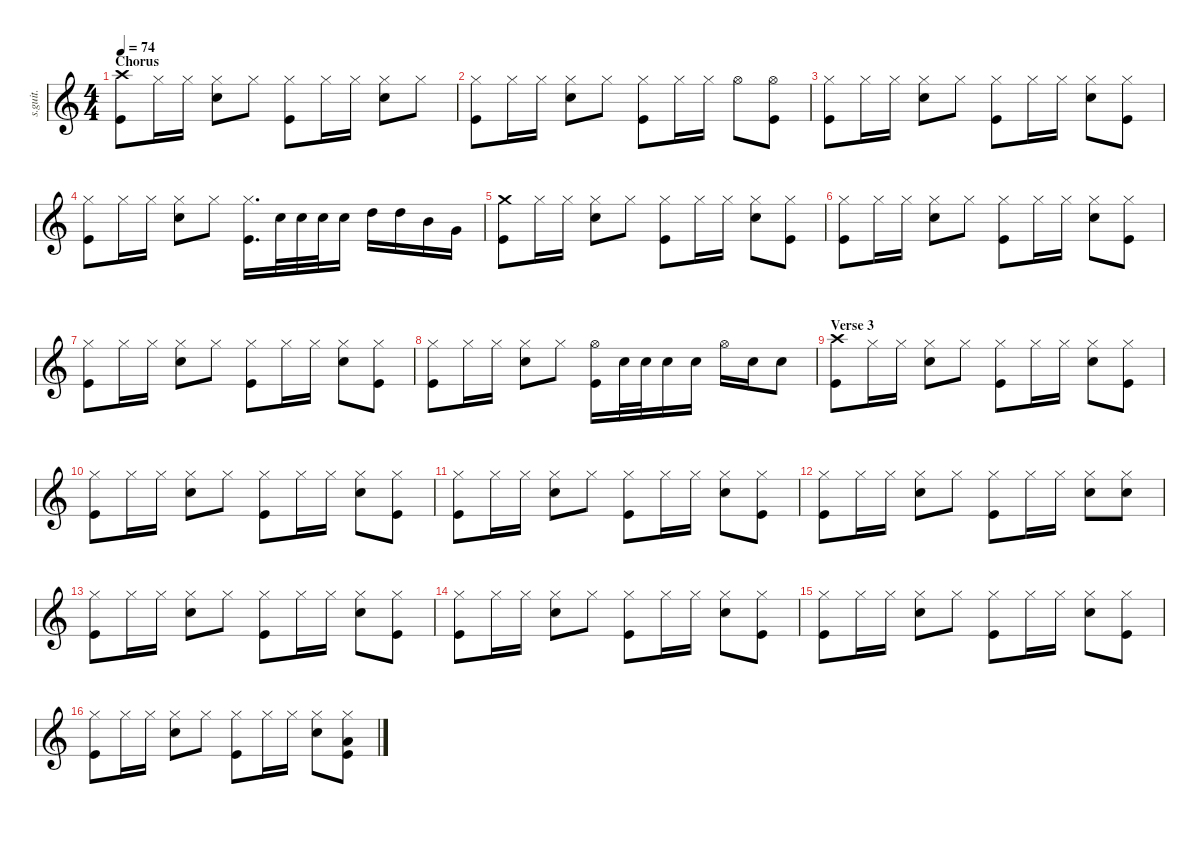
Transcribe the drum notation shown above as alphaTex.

\defaultSystemsLayout 4
\hideDynamics
\bracketExtendMode nobrackets
\track ("Don Henley - Drums" "s.guit.") {instrument percussion}
\staff {score}
\articulation defaults
\ts (4 4)
\section ("" "Chorus")
\tempo 74
\clef g2
\ks c
("Crash high (hit)" "Kick (hit)").8{lyrics (0 "") lyrics (1 "") lyrics (2 "") lyrics (3 "") lyrics (4 "") dy f} "Hi-Hat (closed)".16{lyrics (0 "") lyrics (1 "") lyrics (2 "") lyrics (3 "") lyrics (4 "")} "Hi-Hat (closed)".16{lyrics (0 "") lyrics (1 "") lyrics (2 "") lyrics (3 "") lyrics (4 "")} ("Hi-Hat (closed)" "Snare (hit) 2").8{lyrics (0 "") lyrics (1 "") lyrics (2 "") lyrics (3 "") lyrics (4 "")} "Hi-Hat (closed)".8{lyrics (0 "") lyrics (1 "") lyrics (2 "") lyrics (3 "") lyrics (4 "")} ("Hi-Hat (closed)" "Kick (hit)").8{lyrics (0 "") lyrics (1 "") lyrics (2 "") lyrics (3 "") lyrics (4 "")} "Hi-Hat (closed)".16{lyrics (0 "") lyrics (1 "") lyrics (2 "") lyrics (3 "") lyrics (4 "")} "Hi-Hat (closed)".16{lyrics (0 "") lyrics (1 "") lyrics (2 "") lyrics (3 "") lyrics (4 "")} ("Hi-Hat (closed)" "Snare (hit) 2").8{lyrics (0 "") lyrics (1 "") lyrics (2 "") lyrics (3 "") lyrics (4 "")} "Hi-Hat (closed)".8{lyrics (0 "") lyrics (1 "") lyrics (2 "") lyrics (3 "") lyrics (4 "")} |
("Hi-Hat (closed)" "Kick (hit)").8{lyrics (0 "") lyrics (1 "") lyrics (2 "") lyrics (3 "") lyrics (4 "")} "Hi-Hat (closed)".16{lyrics (0 "") lyrics (1 "") lyrics (2 "") lyrics (3 "") lyrics (4 "")} "Hi-Hat (closed)".16{lyrics (0 "") lyrics (1 "") lyrics (2 "") lyrics (3 "") lyrics (4 "")} ("Hi-Hat (closed)" "Snare (hit) 2").8{lyrics (0 "") lyrics (1 "") lyrics (2 "") lyrics (3 "") lyrics (4 "")} "Hi-Hat (closed)".8{lyrics (0 "") lyrics (1 "") lyrics (2 "") lyrics (3 "") lyrics (4 "")} ("Hi-Hat (closed)" "Kick (hit)").8{lyrics (0 "") lyrics (1 "") lyrics (2 "") lyrics (3 "") lyrics (4 "")} "Hi-Hat (closed)".16{lyrics (0 "") lyrics (1 "") lyrics (2 "") lyrics (3 "") lyrics (4 "")} "Hi-Hat (closed)".16{lyrics (0 "") lyrics (1 "") lyrics (2 "") lyrics (3 "") lyrics (4 "")} "Hi-Hat (open)".8{lyrics (0 "") lyrics (1 "") lyrics (2 "") lyrics (3 "") lyrics (4 "")} ("Hi-Hat (open)" "Kick (hit)").8{lyrics (0 "") lyrics (1 "") lyrics (2 "") lyrics (3 "") lyrics (4 "")} |
("Hi-Hat (closed)" "Kick (hit)").8{lyrics (0 "") lyrics (1 "") lyrics (2 "") lyrics (3 "") lyrics (4 "")} "Hi-Hat (closed)".16{lyrics (0 "") lyrics (1 "") lyrics (2 "") lyrics (3 "") lyrics (4 "")} "Hi-Hat (closed)".16{lyrics (0 "") lyrics (1 "") lyrics (2 "") lyrics (3 "") lyrics (4 "")} ("Hi-Hat (closed)" "Snare (hit) 2").8{lyrics (0 "") lyrics (1 "") lyrics (2 "") lyrics (3 "") lyrics (4 "")} "Hi-Hat (closed)".8{lyrics (0 "") lyrics (1 "") lyrics (2 "") lyrics (3 "") lyrics (4 "")} ("Hi-Hat (closed)" "Kick (hit)").8{lyrics (0 "") lyrics (1 "") lyrics (2 "") lyrics (3 "") lyrics (4 "")} "Hi-Hat (closed)".16{lyrics (0 "") lyrics (1 "") lyrics (2 "") lyrics (3 "") lyrics (4 "")} "Hi-Hat (closed)".16{lyrics (0 "") lyrics (1 "") lyrics (2 "") lyrics (3 "") lyrics (4 "")} ("Hi-Hat (closed)" "Snare (hit) 2").8{lyrics (0 "") lyrics (1 "") lyrics (2 "") lyrics (3 "") lyrics (4 "")} ("Hi-Hat (closed)" "Kick (hit)").8{lyrics (0 "") lyrics (1 "") lyrics (2 "") lyrics (3 "") lyrics (4 "")} |
("Hi-Hat (closed)" "Kick (hit)").8{lyrics (0 "") lyrics (1 "") lyrics (2 "") lyrics (3 "") lyrics (4 "")} "Hi-Hat (closed)".16{lyrics (0 "") lyrics (1 "") lyrics (2 "") lyrics (3 "") lyrics (4 "")} "Hi-Hat (closed)".16{lyrics (0 "") lyrics (1 "") lyrics (2 "") lyrics (3 "") lyrics (4 "")} ("Hi-Hat (closed)" "Snare (hit) 2").8{lyrics (0 "") lyrics (1 "") lyrics (2 "") lyrics (3 "") lyrics (4 "")} "Hi-Hat (closed)".8{lyrics (0 "") lyrics (1 "") lyrics (2 "") lyrics (3 "") lyrics (4 "")} ("Hi-Hat (closed)" "Kick (hit)").16{d lyrics (0 "") lyrics (1 "") lyrics (2 "") lyrics (3 "") lyrics (4 "")} "Snare (hit) 2".32{lyrics (0 "") lyrics (1 "") lyrics (2 "") lyrics (3 "") lyrics (4 "")} "Snare (hit) 2".32{lyrics (0 "") lyrics (1 "") lyrics (2 "") lyrics (3 "") lyrics (4 "")} "Snare (hit) 2".32{lyrics (0 "") lyrics (1 "") lyrics (2 "") lyrics (3 "") lyrics (4 "")} "Snare (hit) 2".16{lyrics (0 "") lyrics (1 "") lyrics (2 "") lyrics (3 "") lyrics (4 "")} "High Tom (hit)".16{lyrics (0 "") lyrics (1 "") lyrics (2 "") lyrics (3 "") lyrics (4 "")} "High Tom (hit)".16{lyrics (0 "") lyrics (1 "") lyrics (2 "") lyrics (3 "") lyrics (4 "")} "Mid Tom (hit)".16{lyrics (0 "") lyrics (1 "") lyrics (2 "") lyrics (3 "") lyrics (4 "")} "Very Low Tom (hit)".16{lyrics (0 "") lyrics (1 "") lyrics (2 "") lyrics (3 "") lyrics (4 "")} |
("Crash medium (hit)" "Kick (hit)").8{lyrics (0 "") lyrics (1 "") lyrics (2 "") lyrics (3 "") lyrics (4 "")} "Hi-Hat (closed)".16{lyrics (0 "") lyrics (1 "") lyrics (2 "") lyrics (3 "") lyrics (4 "")} "Hi-Hat (closed)".16{lyrics (0 "") lyrics (1 "") lyrics (2 "") lyrics (3 "") lyrics (4 "")} ("Hi-Hat (closed)" "Snare (hit) 2").8{lyrics (0 "") lyrics (1 "") lyrics (2 "") lyrics (3 "") lyrics (4 "")} "Hi-Hat (closed)".8{lyrics (0 "") lyrics (1 "") lyrics (2 "") lyrics (3 "") lyrics (4 "")} ("Hi-Hat (closed)" "Kick (hit)").8{lyrics (0 "") lyrics (1 "") lyrics (2 "") lyrics (3 "") lyrics (4 "")} "Hi-Hat (closed)".16{lyrics (0 "") lyrics (1 "") lyrics (2 "") lyrics (3 "") lyrics (4 "")} "Hi-Hat (closed)".16{lyrics (0 "") lyrics (1 "") lyrics (2 "") lyrics (3 "") lyrics (4 "")} ("Hi-Hat (closed)" "Snare (hit) 2").8{lyrics (0 "") lyrics (1 "") lyrics (2 "") lyrics (3 "") lyrics (4 "")} ("Hi-Hat (closed)" "Kick (hit)").8{lyrics (0 "") lyrics (1 "") lyrics (2 "") lyrics (3 "") lyrics (4 "")} |
("Hi-Hat (closed)" "Kick (hit)").8{lyrics (0 "") lyrics (1 "") lyrics (2 "") lyrics (3 "") lyrics (4 "")} "Hi-Hat (closed)".16{lyrics (0 "") lyrics (1 "") lyrics (2 "") lyrics (3 "") lyrics (4 "")} "Hi-Hat (closed)".16{lyrics (0 "") lyrics (1 "") lyrics (2 "") lyrics (3 "") lyrics (4 "")} ("Hi-Hat (closed)" "Snare (hit) 2").8{lyrics (0 "") lyrics (1 "") lyrics (2 "") lyrics (3 "") lyrics (4 "")} "Hi-Hat (closed)".8{lyrics (0 "") lyrics (1 "") lyrics (2 "") lyrics (3 "") lyrics (4 "")} ("Hi-Hat (closed)" "Kick (hit)").8{lyrics (0 "") lyrics (1 "") lyrics (2 "") lyrics (3 "") lyrics (4 "")} "Hi-Hat (closed)".16{lyrics (0 "") lyrics (1 "") lyrics (2 "") lyrics (3 "") lyrics (4 "")} "Hi-Hat (closed)".16{lyrics (0 "") lyrics (1 "") lyrics (2 "") lyrics (3 "") lyrics (4 "")} ("Hi-Hat (closed)" "Snare (hit) 2").8{lyrics (0 "") lyrics (1 "") lyrics (2 "") lyrics (3 "") lyrics (4 "")} ("Hi-Hat (closed)" "Kick (hit)").8{lyrics (0 "") lyrics (1 "") lyrics (2 "") lyrics (3 "") lyrics (4 "")} |
("Hi-Hat (closed)" "Kick (hit)").8{lyrics (0 "") lyrics (1 "") lyrics (2 "") lyrics (3 "") lyrics (4 "")} "Hi-Hat (closed)".16{lyrics (0 "") lyrics (1 "") lyrics (2 "") lyrics (3 "") lyrics (4 "")} "Hi-Hat (closed)".16{lyrics (0 "") lyrics (1 "") lyrics (2 "") lyrics (3 "") lyrics (4 "")} ("Hi-Hat (closed)" "Snare (hit) 2").8{lyrics (0 "") lyrics (1 "") lyrics (2 "") lyrics (3 "") lyrics (4 "")} "Hi-Hat (closed)".8{lyrics (0 "") lyrics (1 "") lyrics (2 "") lyrics (3 "") lyrics (4 "")} ("Hi-Hat (closed)" "Kick (hit)").8{lyrics (0 "") lyrics (1 "") lyrics (2 "") lyrics (3 "") lyrics (4 "")} "Hi-Hat (closed)".16{lyrics (0 "") lyrics (1 "") lyrics (2 "") lyrics (3 "") lyrics (4 "")} "Hi-Hat (closed)".16{lyrics (0 "") lyrics (1 "") lyrics (2 "") lyrics (3 "") lyrics (4 "")} ("Hi-Hat (closed)" "Snare (hit) 2").8{lyrics (0 "") lyrics (1 "") lyrics (2 "") lyrics (3 "") lyrics (4 "")} ("Hi-Hat (closed)" "Kick (hit)").8{lyrics (0 "") lyrics (1 "") lyrics (2 "") lyrics (3 "") lyrics (4 "")} |
("Hi-Hat (closed)" "Kick (hit)").8{lyrics (0 "") lyrics (1 "") lyrics (2 "") lyrics (3 "") lyrics (4 "")} "Hi-Hat (closed)".16{lyrics (0 "") lyrics (1 "") lyrics (2 "") lyrics (3 "") lyrics (4 "")} "Hi-Hat (closed)".16{lyrics (0 "") lyrics (1 "") lyrics (2 "") lyrics (3 "") lyrics (4 "")} ("Hi-Hat (closed)" "Snare (hit) 2").8{lyrics (0 "") lyrics (1 "") lyrics (2 "") lyrics (3 "") lyrics (4 "")} "Hi-Hat (closed)".8{lyrics (0 "") lyrics (1 "") lyrics (2 "") lyrics (3 "") lyrics (4 "")} ("Hi-Hat (open)" "Kick (hit)").16{lyrics (0 "") lyrics (1 "") lyrics (2 "") lyrics (3 "") lyrics (4 "")} "Snare (hit) 2".32{lyrics (0 "") lyrics (1 "") lyrics (2 "") lyrics (3 "") lyrics (4 "")} "Snare (hit) 2".32{lyrics (0 "") lyrics (1 "") lyrics (2 "") lyrics (3 "") lyrics (4 "")} "Snare (hit) 2".16{lyrics (0 "") lyrics (1 "") lyrics (2 "") lyrics (3 "") lyrics (4 "")} "Snare (hit) 2".16{lyrics (0 "") lyrics (1 "") lyrics (2 "") lyrics (3 "") lyrics (4 "")} "Hi-Hat (open)".16{lyrics (0 "") lyrics (1 "") lyrics (2 "") lyrics (3 "") lyrics (4 "")} "Snare (hit) 2".16{lyrics (0 "") lyrics (1 "") lyrics (2 "") lyrics (3 "") lyrics (4 "")} "Snare (hit) 2".8{lyrics (0 "") lyrics (1 "") lyrics (2 "") lyrics (3 "") lyrics (4 "")} |
\section ("" "Verse 3")
("Crash high (hit)" "Kick (hit)").8{lyrics (0 "") lyrics (1 "") lyrics (2 "") lyrics (3 "") lyrics (4 "")} "Hi-Hat (closed)".16{lyrics (0 "") lyrics (1 "") lyrics (2 "") lyrics (3 "") lyrics (4 "")} "Hi-Hat (closed)".16{lyrics (0 "") lyrics (1 "") lyrics (2 "") lyrics (3 "") lyrics (4 "")} ("Hi-Hat (closed)" "Snare (hit) 2").8{lyrics (0 "") lyrics (1 "") lyrics (2 "") lyrics (3 "") lyrics (4 "")} "Hi-Hat (closed)".8{lyrics (0 "") lyrics (1 "") lyrics (2 "") lyrics (3 "") lyrics (4 "")} ("Hi-Hat (closed)" "Kick (hit)").8{lyrics (0 "") lyrics (1 "") lyrics (2 "") lyrics (3 "") lyrics (4 "")} "Hi-Hat (closed)".16{lyrics (0 "") lyrics (1 "") lyrics (2 "") lyrics (3 "") lyrics (4 "")} "Hi-Hat (closed)".16{lyrics (0 "") lyrics (1 "") lyrics (2 "") lyrics (3 "") lyrics (4 "")} ("Hi-Hat (closed)" "Snare (hit) 2").8{lyrics (0 "") lyrics (1 "") lyrics (2 "") lyrics (3 "") lyrics (4 "")} ("Hi-Hat (closed)" "Kick (hit)").8{lyrics (0 "") lyrics (1 "") lyrics (2 "") lyrics (3 "") lyrics (4 "")} |
("Hi-Hat (closed)" "Kick (hit)").8{lyrics (0 "") lyrics (1 "") lyrics (2 "") lyrics (3 "") lyrics (4 "")} "Hi-Hat (closed)".16{lyrics (0 "") lyrics (1 "") lyrics (2 "") lyrics (3 "") lyrics (4 "")} "Hi-Hat (closed)".16{lyrics (0 "") lyrics (1 "") lyrics (2 "") lyrics (3 "") lyrics (4 "")} ("Hi-Hat (closed)" "Snare (hit) 2").8{lyrics (0 "") lyrics (1 "") lyrics (2 "") lyrics (3 "") lyrics (4 "")} "Hi-Hat (closed)".8{lyrics (0 "") lyrics (1 "") lyrics (2 "") lyrics (3 "") lyrics (4 "")} ("Hi-Hat (closed)" "Kick (hit)").8{lyrics (0 "") lyrics (1 "") lyrics (2 "") lyrics (3 "") lyrics (4 "")} "Hi-Hat (closed)".16{lyrics (0 "") lyrics (1 "") lyrics (2 "") lyrics (3 "") lyrics (4 "")} "Hi-Hat (closed)".16{lyrics (0 "") lyrics (1 "") lyrics (2 "") lyrics (3 "") lyrics (4 "")} ("Hi-Hat (closed)" "Snare (hit) 2").8{lyrics (0 "") lyrics (1 "") lyrics (2 "") lyrics (3 "") lyrics (4 "")} ("Hi-Hat (closed)" "Kick (hit)").8{lyrics (0 "") lyrics (1 "") lyrics (2 "") lyrics (3 "") lyrics (4 "")} |
("Hi-Hat (closed)" "Kick (hit)").8{lyrics (0 "") lyrics (1 "") lyrics (2 "") lyrics (3 "") lyrics (4 "")} "Hi-Hat (closed)".16{lyrics (0 "") lyrics (1 "") lyrics (2 "") lyrics (3 "") lyrics (4 "")} "Hi-Hat (closed)".16{lyrics (0 "") lyrics (1 "") lyrics (2 "") lyrics (3 "") lyrics (4 "")} ("Hi-Hat (closed)" "Snare (hit) 2").8{lyrics (0 "") lyrics (1 "") lyrics (2 "") lyrics (3 "") lyrics (4 "")} "Hi-Hat (closed)".8{lyrics (0 "") lyrics (1 "") lyrics (2 "") lyrics (3 "") lyrics (4 "")} ("Hi-Hat (closed)" "Kick (hit)").8{lyrics (0 "") lyrics (1 "") lyrics (2 "") lyrics (3 "") lyrics (4 "")} "Hi-Hat (closed)".16{lyrics (0 "") lyrics (1 "") lyrics (2 "") lyrics (3 "") lyrics (4 "")} "Hi-Hat (closed)".16{lyrics (0 "") lyrics (1 "") lyrics (2 "") lyrics (3 "") lyrics (4 "")} ("Hi-Hat (closed)" "Snare (hit) 2").8{lyrics (0 "") lyrics (1 "") lyrics (2 "") lyrics (3 "") lyrics (4 "")} ("Hi-Hat (closed)" "Kick (hit)").8{lyrics (0 "") lyrics (1 "") lyrics (2 "") lyrics (3 "") lyrics (4 "")} |
("Hi-Hat (closed)" "Kick (hit)").8{lyrics (0 "") lyrics (1 "") lyrics (2 "") lyrics (3 "") lyrics (4 "")} "Hi-Hat (closed)".16{lyrics (0 "") lyrics (1 "") lyrics (2 "") lyrics (3 "") lyrics (4 "")} "Hi-Hat (closed)".16{lyrics (0 "") lyrics (1 "") lyrics (2 "") lyrics (3 "") lyrics (4 "")} ("Hi-Hat (closed)" "Snare (hit) 2").8{lyrics (0 "") lyrics (1 "") lyrics (2 "") lyrics (3 "") lyrics (4 "")} "Hi-Hat (closed)".8{lyrics (0 "") lyrics (1 "") lyrics (2 "") lyrics (3 "") lyrics (4 "")} ("Hi-Hat (closed)" "Kick (hit)").8{lyrics (0 "") lyrics (1 "") lyrics (2 "") lyrics (3 "") lyrics (4 "")} "Hi-Hat (closed)".16{lyrics (0 "") lyrics (1 "") lyrics (2 "") lyrics (3 "") lyrics (4 "")} "Hi-Hat (closed)".16{lyrics (0 "") lyrics (1 "") lyrics (2 "") lyrics (3 "") lyrics (4 "")} ("Hi-Hat (closed)" "Snare (hit) 2").8{lyrics (0 "") lyrics (1 "") lyrics (2 "") lyrics (3 "") lyrics (4 "")} ("Hi-Hat (closed)" "Snare (hit) 2").8{lyrics (0 "") lyrics (1 "") lyrics (2 "") lyrics (3 "") lyrics (4 "")} |
("Hi-Hat (closed)" "Kick (hit)").8{lyrics (0 "") lyrics (1 "") lyrics (2 "") lyrics (3 "") lyrics (4 "")} "Hi-Hat (closed)".16{lyrics (0 "") lyrics (1 "") lyrics (2 "") lyrics (3 "") lyrics (4 "")} "Hi-Hat (closed)".16{lyrics (0 "") lyrics (1 "") lyrics (2 "") lyrics (3 "") lyrics (4 "")} ("Hi-Hat (closed)" "Snare (hit) 2").8{lyrics (0 "") lyrics (1 "") lyrics (2 "") lyrics (3 "") lyrics (4 "")} "Hi-Hat (closed)".8{lyrics (0 "") lyrics (1 "") lyrics (2 "") lyrics (3 "") lyrics (4 "")} ("Hi-Hat (closed)" "Kick (hit)").8{lyrics (0 "") lyrics (1 "") lyrics (2 "") lyrics (3 "") lyrics (4 "")} "Hi-Hat (closed)".16{lyrics (0 "") lyrics (1 "") lyrics (2 "") lyrics (3 "") lyrics (4 "")} "Hi-Hat (closed)".16{lyrics (0 "") lyrics (1 "") lyrics (2 "") lyrics (3 "") lyrics (4 "")} ("Hi-Hat (closed)" "Snare (hit) 2").8{lyrics (0 "") lyrics (1 "") lyrics (2 "") lyrics (3 "") lyrics (4 "")} ("Hi-Hat (closed)" "Kick (hit)").8{lyrics (0 "") lyrics (1 "") lyrics (2 "") lyrics (3 "") lyrics (4 "")} |
("Hi-Hat (closed)" "Kick (hit)").8{lyrics (0 "") lyrics (1 "") lyrics (2 "") lyrics (3 "") lyrics (4 "")} "Hi-Hat (closed)".16{lyrics (0 "") lyrics (1 "") lyrics (2 "") lyrics (3 "") lyrics (4 "")} "Hi-Hat (closed)".16{lyrics (0 "") lyrics (1 "") lyrics (2 "") lyrics (3 "") lyrics (4 "")} ("Hi-Hat (closed)" "Snare (hit) 2").8{lyrics (0 "") lyrics (1 "") lyrics (2 "") lyrics (3 "") lyrics (4 "")} "Hi-Hat (closed)".8{lyrics (0 "") lyrics (1 "") lyrics (2 "") lyrics (3 "") lyrics (4 "")} ("Hi-Hat (closed)" "Kick (hit)").8{lyrics (0 "") lyrics (1 "") lyrics (2 "") lyrics (3 "") lyrics (4 "")} "Hi-Hat (closed)".16{lyrics (0 "") lyrics (1 "") lyrics (2 "") lyrics (3 "") lyrics (4 "")} "Hi-Hat (closed)".16{lyrics (0 "") lyrics (1 "") lyrics (2 "") lyrics (3 "") lyrics (4 "")} ("Hi-Hat (closed)" "Snare (hit) 2").8{lyrics (0 "") lyrics (1 "") lyrics (2 "") lyrics (3 "") lyrics (4 "")} ("Hi-Hat (closed)" "Kick (hit)").8{lyrics (0 "") lyrics (1 "") lyrics (2 "") lyrics (3 "") lyrics (4 "")} |
("Hi-Hat (closed)" "Kick (hit)").8{lyrics (0 "") lyrics (1 "") lyrics (2 "") lyrics (3 "") lyrics (4 "")} "Hi-Hat (closed)".16{lyrics (0 "") lyrics (1 "") lyrics (2 "") lyrics (3 "") lyrics (4 "")} "Hi-Hat (closed)".16{lyrics (0 "") lyrics (1 "") lyrics (2 "") lyrics (3 "") lyrics (4 "")} ("Hi-Hat (closed)" "Snare (hit) 2").8{lyrics (0 "") lyrics (1 "") lyrics (2 "") lyrics (3 "") lyrics (4 "")} "Hi-Hat (closed)".8{lyrics (0 "") lyrics (1 "") lyrics (2 "") lyrics (3 "") lyrics (4 "")} ("Hi-Hat (closed)" "Kick (hit)").8{lyrics (0 "") lyrics (1 "") lyrics (2 "") lyrics (3 "") lyrics (4 "")} "Hi-Hat (closed)".16{lyrics (0 "") lyrics (1 "") lyrics (2 "") lyrics (3 "") lyrics (4 "")} "Hi-Hat (closed)".16{lyrics (0 "") lyrics (1 "") lyrics (2 "") lyrics (3 "") lyrics (4 "")} ("Hi-Hat (closed)" "Snare (hit) 2").8{lyrics (0 "") lyrics (1 "") lyrics (2 "") lyrics (3 "") lyrics (4 "")} ("Hi-Hat (closed)" "Kick (hit)").8{lyrics (0 "") lyrics (1 "") lyrics (2 "") lyrics (3 "") lyrics (4 "")} |
("Hi-Hat (closed)" "Kick (hit)").8{lyrics (0 "") lyrics (1 "") lyrics (2 "") lyrics (3 "") lyrics (4 "")} "Hi-Hat (closed)".16{lyrics (0 "") lyrics (1 "") lyrics (2 "") lyrics (3 "") lyrics (4 "")} "Hi-Hat (closed)".16{lyrics (0 "") lyrics (1 "") lyrics (2 "") lyrics (3 "") lyrics (4 "")} ("Hi-Hat (closed)" "Snare (hit) 2").8{lyrics (0 "") lyrics (1 "") lyrics (2 "") lyrics (3 "") lyrics (4 "")} "Hi-Hat (closed)".8{lyrics (0 "") lyrics (1 "") lyrics (2 "") lyrics (3 "") lyrics (4 "")} ("Hi-Hat (closed)" "Kick (hit)").8{lyrics (0 "") lyrics (1 "") lyrics (2 "") lyrics (3 "") lyrics (4 "")} "Hi-Hat (closed)".16{lyrics (0 "") lyrics (1 "") lyrics (2 "") lyrics (3 "") lyrics (4 "")} "Hi-Hat (closed)".16{lyrics (0 "") lyrics (1 "") lyrics (2 "") lyrics (3 "") lyrics (4 "")} ("Hi-Hat (closed)" "Snare (hit) 2").8{lyrics (0 "") lyrics (1 "") lyrics (2 "") lyrics (3 "") lyrics (4 "")} ("Hi-Hat (closed)" "Low Tom (hit)" "Kick (hit)").8{lyrics (0 "") lyrics (1 "") lyrics (2 "") lyrics (3 "") lyrics (4 "")}
